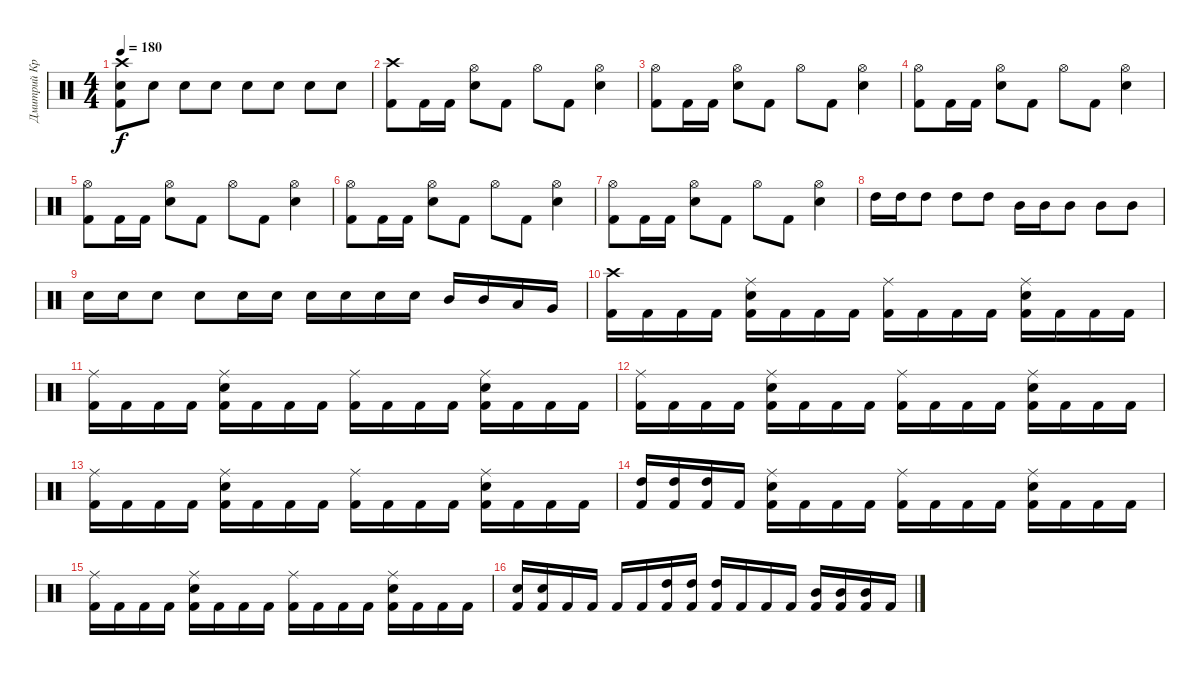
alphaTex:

\track ("Дмитрий Кривенков" "Дмитрий Кр") {instrument percussion}
\staff {score}
\articulation defaults
\ts (4 4)
\tempo 180
\clef neutral
\ks c
("Crash high (hit)" "Electric Snare (hit)" "Kick (hit) 2").8{dy f} "Electric Snare (hit)".8 "Electric Snare (hit)".8 "Electric Snare (hit)".8 "Electric Snare (hit)".8 "Electric Snare (hit)".8 "Electric Snare (hit)".8 "Electric Snare (hit)".8 |
("Crash high (hit)" "Kick (hit) 2").8 "Kick (hit) 2".16 "Kick (hit) 2".16 ("Hi-Hat (open)" "Electric Snare (hit)").8 "Kick (hit) 2".8 "Hi-Hat (open)".8 "Kick (hit) 2".8 ("Hi-Hat (open)" "Electric Snare (hit)").4 |
("Hi-Hat (open)" "Kick (hit) 2").8 "Kick (hit) 2".16 "Kick (hit) 2".16 ("Hi-Hat (open)" "Electric Snare (hit)").8 "Kick (hit) 2".8 "Hi-Hat (open)".8 "Kick (hit) 2".8 ("Hi-Hat (open)" "Electric Snare (hit)").4 |
("Hi-Hat (open)" "Kick (hit) 2").8 "Kick (hit) 2".16 "Kick (hit) 2".16 ("Hi-Hat (open)" "Electric Snare (hit)").8 "Kick (hit) 2".8 "Hi-Hat (open)".8 "Kick (hit) 2".8 ("Hi-Hat (open)" "Electric Snare (hit)").4 |
("Hi-Hat (open)" "Kick (hit) 2").8 "Kick (hit) 2".16 "Kick (hit) 2".16 ("Hi-Hat (open)" "Electric Snare (hit)").8 "Kick (hit) 2".8 "Hi-Hat (open)".8 "Kick (hit) 2".8 ("Hi-Hat (open)" "Electric Snare (hit)").4 |
("Hi-Hat (open)" "Kick (hit) 2").8 "Kick (hit) 2".16 "Kick (hit) 2".16 ("Hi-Hat (open)" "Electric Snare (hit)").8 "Kick (hit) 2".8 "Hi-Hat (open)".8 "Kick (hit) 2".8 ("Hi-Hat (open)" "Electric Snare (hit)").4 |
("Hi-Hat (open)" "Kick (hit) 2").8 "Kick (hit) 2".16 "Kick (hit) 2".16 ("Hi-Hat (open)" "Electric Snare (hit)").8 "Kick (hit) 2".8 "Hi-Hat (open)".8 "Kick (hit) 2".8 ("Hi-Hat (open)" "Electric Snare (hit)").4 |
"High Tom (hit)".16 "High Tom (hit)".16 "High Tom (hit)".8 "High Tom (hit)".8 "High Tom (hit)".8 "Mid Tom (hit)".16 "Mid Tom (hit)".16 "Mid Tom (hit)".8 "Mid Tom (hit)".8 "Mid Tom (hit)".8 |
"Electric Snare (hit)".16 "Electric Snare (hit)".16 "Electric Snare (hit)".8 "Electric Snare (hit)".8 "Electric Snare (hit)".16 "Electric Snare (hit)".16 "Electric Snare (hit)".16 "Electric Snare (hit)".16 "Electric Snare (hit)".16 "Electric Snare (hit)".16 "Mid Tom (hit)".16 "Mid Tom (hit)".16 "Low Tom (hit)".16 "Very Low Tom (hit)".16 |
("Crash high (hit)" "Kick (hit) 2").16 "Kick (hit) 2".16 "Kick (hit) 2".16 "Kick (hit) 2".16 ("Ride (middle)" "Electric Snare (hit)" "Kick (hit) 2").16 "Kick (hit) 2".16 "Kick (hit) 2".16 "Kick (hit) 2".16 ("Ride (middle)" "Kick (hit) 2").16 "Kick (hit) 2".16 "Kick (hit) 2".16 "Kick (hit) 2".16 ("Ride (middle)" "Electric Snare (hit)" "Kick (hit) 2").16 "Kick (hit) 2".16 "Kick (hit) 2".16 "Kick (hit) 2".16 |
("Ride (middle)" "Kick (hit) 2").16 "Kick (hit) 2".16 "Kick (hit) 2".16 "Kick (hit) 2".16 ("Ride (middle)" "Electric Snare (hit)" "Kick (hit) 2").16 "Kick (hit) 2".16 "Kick (hit) 2".16 "Kick (hit) 2".16 ("Ride (middle)" "Kick (hit) 2").16 "Kick (hit) 2".16 "Kick (hit) 2".16 "Kick (hit) 2".16 ("Ride (middle)" "Electric Snare (hit)" "Kick (hit) 2").16 "Kick (hit) 2".16 "Kick (hit) 2".16 "Kick (hit) 2".16 |
("Ride (middle)" "Kick (hit) 2").16 "Kick (hit) 2".16 "Kick (hit) 2".16 "Kick (hit) 2".16 ("Ride (middle)" "Electric Snare (hit)" "Kick (hit) 2").16 "Kick (hit) 2".16 "Kick (hit) 2".16 "Kick (hit) 2".16 ("Ride (middle)" "Kick (hit) 2").16 "Kick (hit) 2".16 "Kick (hit) 2".16 "Kick (hit) 2".16 ("Ride (middle)" "Electric Snare (hit)" "Kick (hit) 2").16 "Kick (hit) 2".16 "Kick (hit) 2".16 "Kick (hit) 2".16 |
("Ride (middle)" "Kick (hit) 2").16 "Kick (hit) 2".16 "Kick (hit) 2".16 "Kick (hit) 2".16 ("Ride (middle)" "Electric Snare (hit)" "Kick (hit) 2").16 "Kick (hit) 2".16 "Kick (hit) 2".16 "Kick (hit) 2".16 ("Ride (middle)" "Kick (hit) 2").16 "Kick (hit) 2".16 "Kick (hit) 2".16 "Kick (hit) 2".16 ("Ride (middle)" "Electric Snare (hit)" "Kick (hit) 2").16 "Kick (hit) 2".16 "Kick (hit) 2".16 "Kick (hit) 2".16 |
("High Tom (hit)" "Kick (hit) 2").16 ("High Tom (hit)" "Kick (hit) 2").16 ("High Tom (hit)" "Kick (hit) 2").16 "Kick (hit) 2".16 ("Ride (middle)" "Electric Snare (hit)" "Kick (hit) 2").16 "Kick (hit) 2".16 "Kick (hit) 2".16 "Kick (hit) 2".16 ("Ride (middle)" "Kick (hit) 2").16 "Kick (hit) 2".16 "Kick (hit) 2".16 "Kick (hit) 2".16 ("Ride (middle)" "Electric Snare (hit)" "Kick (hit) 2").16 "Kick (hit) 2".16 "Kick (hit) 2".16 "Kick (hit) 2".16 |
("Ride (middle)" "Kick (hit) 2").16 "Kick (hit) 2".16 "Kick (hit) 2".16 "Kick (hit) 2".16 ("Ride (middle)" "Electric Snare (hit)" "Kick (hit) 2").16 "Kick (hit) 2".16 "Kick (hit) 2".16 "Kick (hit) 2".16 ("Ride (middle)" "Kick (hit) 2").16 "Kick (hit) 2".16 "Kick (hit) 2".16 "Kick (hit) 2".16 ("Ride (middle)" "Electric Snare (hit)" "Kick (hit) 2").16 "Kick (hit) 2".16 "Kick (hit) 2".16 "Kick (hit) 2".16 |
("Electric Snare (hit)" "Kick (hit) 2").16 ("Electric Snare (hit)" "Kick (hit) 2").16 "Kick (hit) 2".16 "Kick (hit) 2".16 "Kick (hit) 2".16 "Kick (hit) 2".16 ("High Tom (hit)" "Kick (hit) 2").16 ("High Tom (hit)" "Kick (hit) 2").16 ("High Tom (hit)" "Kick (hit) 2").16 "Kick (hit) 2".16 "Kick (hit) 2".16 "Kick (hit) 2".16 ("Mid Tom (hit)" "Kick (hit) 2").16 ("Mid Tom (hit)" "Kick (hit) 2").16 ("Mid Tom (hit)" "Kick (hit) 2").16 "Kick (hit) 2".16
